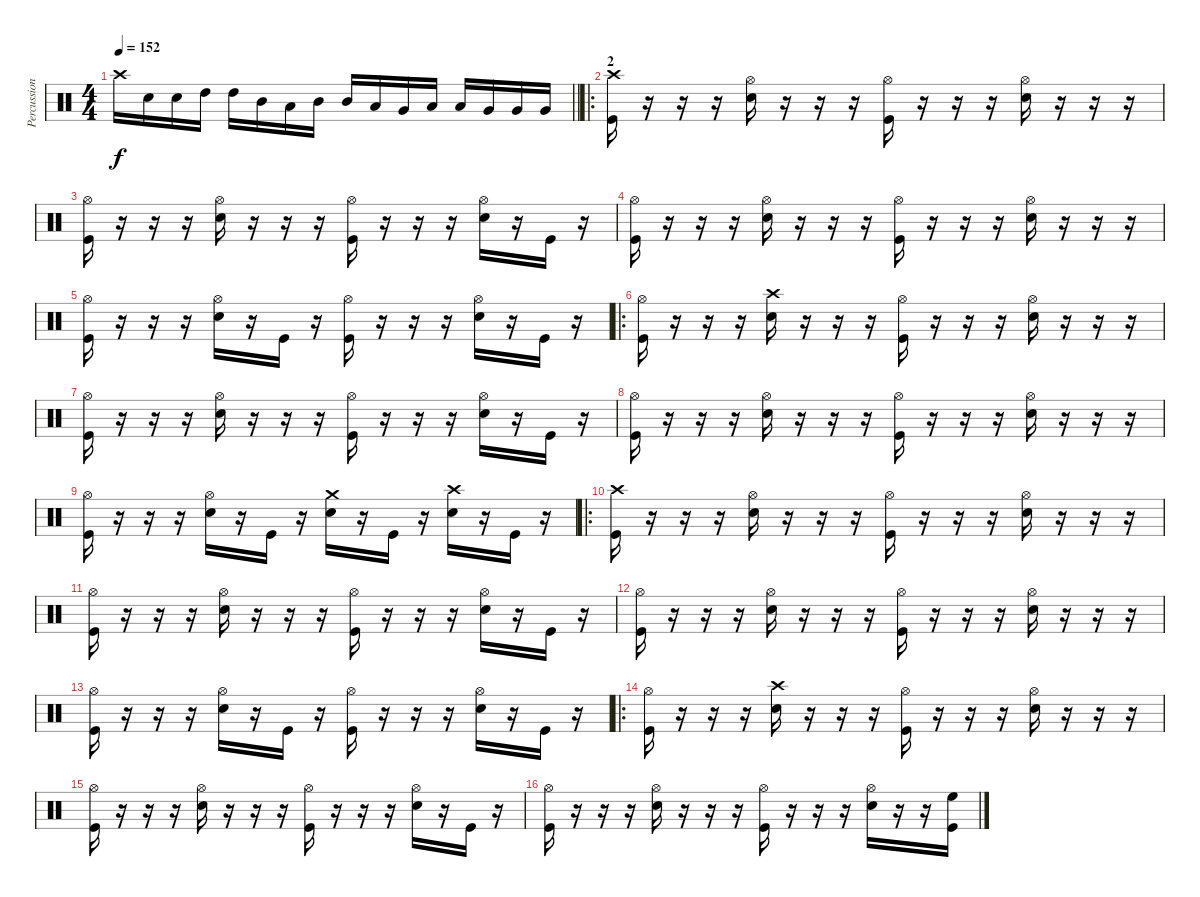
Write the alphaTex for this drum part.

\track ("Percussion" "Percussion") {instrument percussion}
\staff {score}
\articulation defaults
\ts (4 4)
\tempo 152
\clef neutral
\barLineRight lightlight
\ks c "Crash high (hit)".16{dy f} "Snare (hit) 2".16 "Snare (hit) 2".16 "High Tom (hit)".16 "High Tom (hit)".16 "Mid Tom (hit)".16 "Low Tom (hit)".16 "Mid Tom (hit)".16 "Mid Tom (hit)".16 "Low Tom (hit)".16 "Very Low Tom (hit)".16 "Low Tom (hit)".16 "Low Tom (hit)".16 "Very Low Tom (hit)".16 "Very Low Tom (hit)".16 "Very Low Tom (hit)".16
|
\ro
\section ("" "2")
("Crash high (hit)" "Kick (hit)").16 r.16 r.16 r.16 ("Hi-Hat (open)" "Snare (hit) 2").16 r.16 r.16 r.16 ("Hi-Hat (open)" "Kick (hit)").16 r.16 r.16 r.16 ("Hi-Hat (open)" "Snare (hit) 2").16 r.16 r.16 r.16 |
("Hi-Hat (open)" "Kick (hit)").16 r.16 r.16 r.16 ("Hi-Hat (open)" "Snare (hit) 2").16 r.16 r.16 r.16 ("Hi-Hat (open)" "Kick (hit)").16 r.16 r.16 r.16 ("Hi-Hat (open)" "Snare (hit) 2").16 r.16 "Kick (hit)".16 r.16 |
("Hi-Hat (open)" "Kick (hit)").16 r.16 r.16 r.16 ("Hi-Hat (open)" "Snare (hit) 2").16 r.16 r.16 r.16 ("Hi-Hat (open)" "Kick (hit)").16 r.16 r.16 r.16 ("Hi-Hat (open)" "Snare (hit) 2").16 r.16 r.16 r.16 |
("Hi-Hat (open)" "Kick (hit)").16 r.16 r.16 r.16 ("Hi-Hat (open)" "Snare (hit) 2").16 r.16 "Kick (hit)".16 r.16 ("Hi-Hat (open)" "Kick (hit)").16 r.16 r.16 r.16 ("Hi-Hat (open)" "Snare (hit) 2").16 r.16 "Kick (hit)".16 r.16 |
\ro
("Hi-Hat (open)" "Kick (hit)").16 r.16 r.16 r.16 ("Crash high (hit)" "Snare (hit) 2").16 r.16 r.16 r.16 ("Hi-Hat (open)" "Kick (hit)").16 r.16 r.16 r.16 ("Hi-Hat (open)" "Snare (hit) 2").16 r.16 r.16 r.16 |
("Hi-Hat (open)" "Kick (hit)").16 r.16 r.16 r.16 ("Hi-Hat (open)" "Snare (hit) 2").16 r.16 r.16 r.16 ("Hi-Hat (open)" "Kick (hit)").16 r.16 r.16 r.16 ("Hi-Hat (open)" "Snare (hit) 2").16 r.16 "Kick (hit)".16 r.16 |
("Hi-Hat (open)" "Kick (hit)").16 r.16 r.16 r.16 ("Hi-Hat (open)" "Snare (hit) 2").16 r.16 r.16 r.16 ("Hi-Hat (open)" "Kick (hit)").16 r.16 r.16 r.16 ("Hi-Hat (open)" "Snare (hit) 2").16 r.16 r.16 r.16 |
("Hi-Hat (open)" "Kick (hit)").16 r.16 r.16 r.16 ("Hi-Hat (open)" "Snare (hit) 2").16 r.16 "Kick (hit)".16 r.16 ("Crash medium (hit)" "Snare (hit) 2").16 r.16 "Kick (hit)".16 r.16 ("Crash high (hit)" "Snare (hit) 2").16 r.16 "Kick (hit)".16 r.16 |
\ro
("Crash high (hit)" "Kick (hit)").16 r.16 r.16 r.16 ("Hi-Hat (open)" "Snare (hit) 2").16 r.16 r.16 r.16 ("Hi-Hat (open)" "Kick (hit)").16 r.16 r.16 r.16 ("Hi-Hat (open)" "Snare (hit) 2").16 r.16 r.16 r.16 |
("Hi-Hat (open)" "Kick (hit)").16 r.16 r.16 r.16 ("Hi-Hat (open)" "Snare (hit) 2").16 r.16 r.16 r.16 ("Hi-Hat (open)" "Kick (hit)").16 r.16 r.16 r.16 ("Hi-Hat (open)" "Snare (hit) 2").16 r.16 "Kick (hit)".16 r.16 |
("Hi-Hat (open)" "Kick (hit)").16 r.16 r.16 r.16 ("Hi-Hat (open)" "Snare (hit) 2").16 r.16 r.16 r.16 ("Hi-Hat (open)" "Kick (hit)").16 r.16 r.16 r.16 ("Hi-Hat (open)" "Snare (hit) 2").16 r.16 r.16 r.16 |
("Hi-Hat (open)" "Kick (hit)").16 r.16 r.16 r.16 ("Hi-Hat (open)" "Snare (hit) 2").16 r.16 "Kick (hit)".16 r.16 ("Hi-Hat (open)" "Kick (hit)").16 r.16 r.16 r.16 ("Hi-Hat (open)" "Snare (hit) 2").16 r.16 "Kick (hit)".16 r.16 |
\ro
("Hi-Hat (open)" "Kick (hit)").16 r.16 r.16 r.16 ("Crash high (hit)" "Snare (hit) 2").16 r.16 r.16 r.16 ("Hi-Hat (open)" "Kick (hit)").16 r.16 r.16 r.16 ("Hi-Hat (open)" "Snare (hit) 2").16 r.16 r.16 r.16 |
("Hi-Hat (open)" "Kick (hit)").16 r.16 r.16 r.16 ("Hi-Hat (open)" "Snare (hit) 2").16 r.16 r.16 r.16 ("Hi-Hat (open)" "Kick (hit)").16 r.16 r.16 r.16 ("Hi-Hat (open)" "Snare (hit) 2").16 r.16 "Kick (hit)".16 r.16 |
("Hi-Hat (open)" "Kick (hit)").16 r.16 r.16 r.16 ("Hi-Hat (open)" "Snare (hit) 2").16 r.16 r.16 r.16 ("Hi-Hat (open)" "Kick (hit)").16 r.16 r.16 r.16 ("Hi-Hat (open)" "Snare (hit) 2").16 r.16 r.16 ("High Floor Tom (hit)" "Kick (hit)").16
